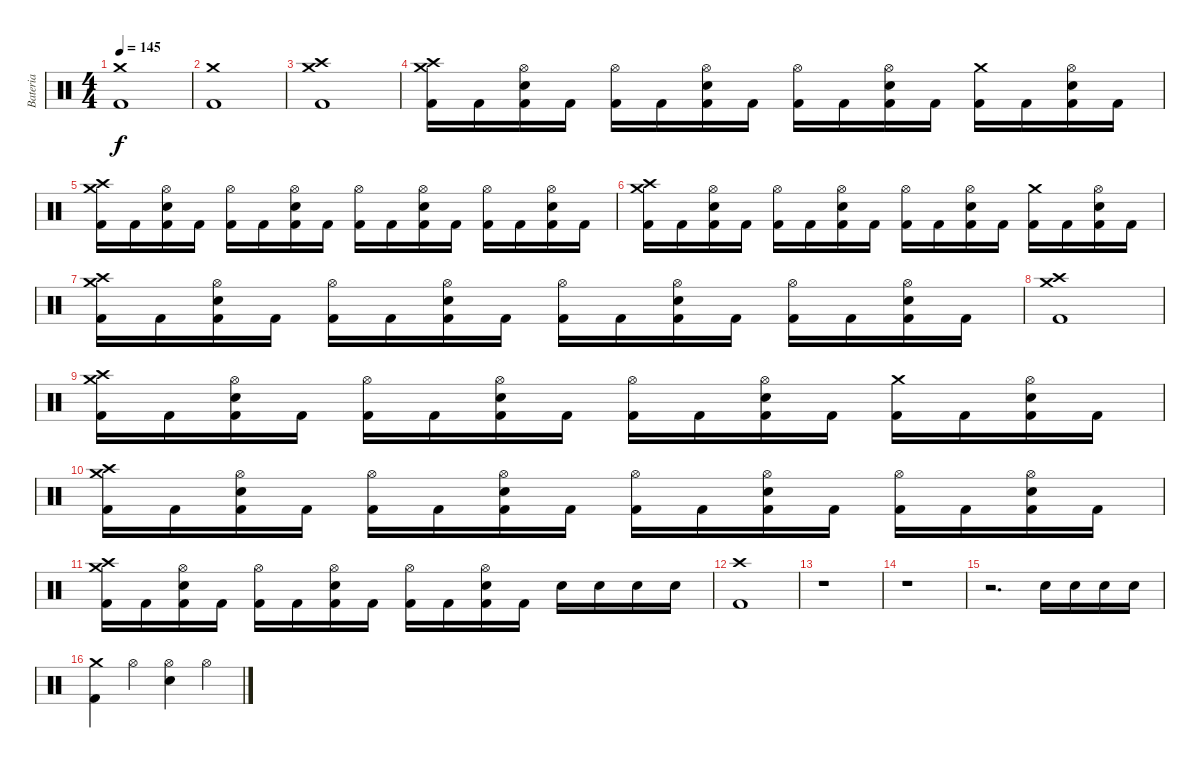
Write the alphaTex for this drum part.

\track ("Bateria" "Bateria") {instrument percussion}
\staff {score}
\articulation defaults
\ts (4 4)
\tempo 145
\clef neutral
\ks c
("Crash medium (hit)" "Kick (hit) 2").1{dy f} |
("Crash medium (hit)" "Kick (hit) 2").1 |
("Crash high (hit)" "Crash medium (hit)" "Kick (hit) 2").1 |
("Crash high (hit)" "Crash medium (hit)" "Kick (hit) 2").16 "Kick (hit) 2".16 ("Hi-Hat (open)" "Snare (hit) 2" "Kick (hit) 2").16 "Kick (hit) 2".16 ("Hi-Hat (open)" "Kick (hit) 2").16 "Kick (hit) 2".16 ("Hi-Hat (open)" "Snare (hit) 2" "Kick (hit) 2").16 "Kick (hit) 2".16 ("Hi-Hat (open)" "Kick (hit) 2").16 "Kick (hit) 2".16 ("Hi-Hat (open)" "Snare (hit) 2" "Kick (hit) 2").16 "Kick (hit) 2".16 ("Crash medium (hit)" "Kick (hit) 2").16 "Kick (hit) 2".16 ("Hi-Hat (open)" "Snare (hit) 2" "Kick (hit) 2").16 "Kick (hit) 2".16 |
("Crash high (hit)" "Crash medium (hit)" "Kick (hit) 2").16 "Kick (hit) 2".16 ("Hi-Hat (open)" "Snare (hit) 2" "Kick (hit) 2").16 "Kick (hit) 2".16 ("Hi-Hat (open)" "Kick (hit) 2").16 "Kick (hit) 2".16 ("Hi-Hat (open)" "Snare (hit) 2" "Kick (hit) 2").16 "Kick (hit) 2".16 ("Hi-Hat (open)" "Kick (hit) 2").16 "Kick (hit) 2".16 ("Hi-Hat (open)" "Snare (hit) 2" "Kick (hit) 2").16 "Kick (hit) 2".16 ("Hi-Hat (open)" "Kick (hit) 2").16 "Kick (hit) 2".16 ("Hi-Hat (open)" "Snare (hit) 2" "Kick (hit) 2").16 "Kick (hit) 2".16 |
("Crash high (hit)" "Crash medium (hit)" "Kick (hit) 2").16 "Kick (hit) 2".16 ("Hi-Hat (open)" "Snare (hit) 2" "Kick (hit) 2").16 "Kick (hit) 2".16 ("Hi-Hat (open)" "Kick (hit) 2").16 "Kick (hit) 2".16 ("Hi-Hat (open)" "Snare (hit) 2" "Kick (hit) 2").16 "Kick (hit) 2".16 ("Hi-Hat (open)" "Kick (hit) 2").16 "Kick (hit) 2".16 ("Hi-Hat (open)" "Snare (hit) 2" "Kick (hit) 2").16 "Kick (hit) 2".16 ("Crash medium (hit)" "Kick (hit) 2").16 "Kick (hit) 2".16 ("Hi-Hat (open)" "Snare (hit) 2" "Kick (hit) 2").16 "Kick (hit) 2".16 |
("Crash high (hit)" "Crash medium (hit)" "Kick (hit) 2").16 "Kick (hit) 2".16 ("Hi-Hat (open)" "Snare (hit) 2" "Kick (hit) 2").16 "Kick (hit) 2".16 ("Hi-Hat (open)" "Kick (hit) 2").16 "Kick (hit) 2".16 ("Hi-Hat (open)" "Snare (hit) 2" "Kick (hit) 2").16 "Kick (hit) 2".16 ("Hi-Hat (open)" "Kick (hit) 2").16 "Kick (hit) 2".16 ("Hi-Hat (open)" "Snare (hit) 2" "Kick (hit) 2").16 "Kick (hit) 2".16 ("Hi-Hat (open)" "Kick (hit) 2").16 "Kick (hit) 2".16 ("Hi-Hat (open)" "Snare (hit) 2" "Kick (hit) 2").16 "Kick (hit) 2".16 |
("Crash high (hit)" "Crash medium (hit)" "Kick (hit) 2").1 |
("Crash high (hit)" "Crash medium (hit)" "Kick (hit) 2").16 "Kick (hit) 2".16 ("Hi-Hat (open)" "Snare (hit) 2" "Kick (hit) 2").16 "Kick (hit) 2".16 ("Hi-Hat (open)" "Kick (hit) 2").16 "Kick (hit) 2".16 ("Hi-Hat (open)" "Snare (hit) 2" "Kick (hit) 2").16 "Kick (hit) 2".16 ("Hi-Hat (open)" "Kick (hit) 2").16 "Kick (hit) 2".16 ("Hi-Hat (open)" "Snare (hit) 2" "Kick (hit) 2").16 "Kick (hit) 2".16 ("Crash medium (hit)" "Kick (hit) 2").16 "Kick (hit) 2".16 ("Hi-Hat (open)" "Snare (hit) 2" "Kick (hit) 2").16 "Kick (hit) 2".16 |
("Crash high (hit)" "Crash medium (hit)" "Kick (hit) 2").16 "Kick (hit) 2".16 ("Hi-Hat (open)" "Snare (hit) 2" "Kick (hit) 2").16 "Kick (hit) 2".16 ("Hi-Hat (open)" "Kick (hit) 2").16 "Kick (hit) 2".16 ("Hi-Hat (open)" "Snare (hit) 2" "Kick (hit) 2").16 "Kick (hit) 2".16 ("Hi-Hat (open)" "Kick (hit) 2").16 "Kick (hit) 2".16 ("Hi-Hat (open)" "Snare (hit) 2" "Kick (hit) 2").16 "Kick (hit) 2".16 ("Hi-Hat (open)" "Kick (hit) 2").16 "Kick (hit) 2".16 ("Hi-Hat (open)" "Snare (hit) 2" "Kick (hit) 2").16 "Kick (hit) 2".16 |
("Crash high (hit)" "Crash medium (hit)" "Kick (hit) 2").16 "Kick (hit) 2".16 ("Hi-Hat (open)" "Snare (hit) 2" "Kick (hit) 2").16 "Kick (hit) 2".16 ("Hi-Hat (open)" "Kick (hit) 2").16 "Kick (hit) 2".16 ("Hi-Hat (open)" "Snare (hit) 2" "Kick (hit) 2").16 "Kick (hit) 2".16 ("Hi-Hat (open)" "Kick (hit) 2").16 "Kick (hit) 2".16 ("Hi-Hat (open)" "Snare (hit) 2" "Kick (hit) 2").16 "Kick (hit) 2".16 "Snare (hit) 2".16 "Snare (hit) 2".16 "Snare (hit) 2".16 "Snare (hit) 2".16 |
("Crash high (hit)" "Kick (hit) 2").1 |
r.1 |
r.1 |
r.2{d} "Snare (hit) 2".16 "Snare (hit) 2".16 "Snare (hit) 2".16 "Snare (hit) 2".16 |
("Crash medium (hit)" "Kick (hit) 2").4 "Hi-Hat (open)".4 ("Hi-Hat (open)" "Snare (hit) 2").4 "Hi-Hat (open)".4
